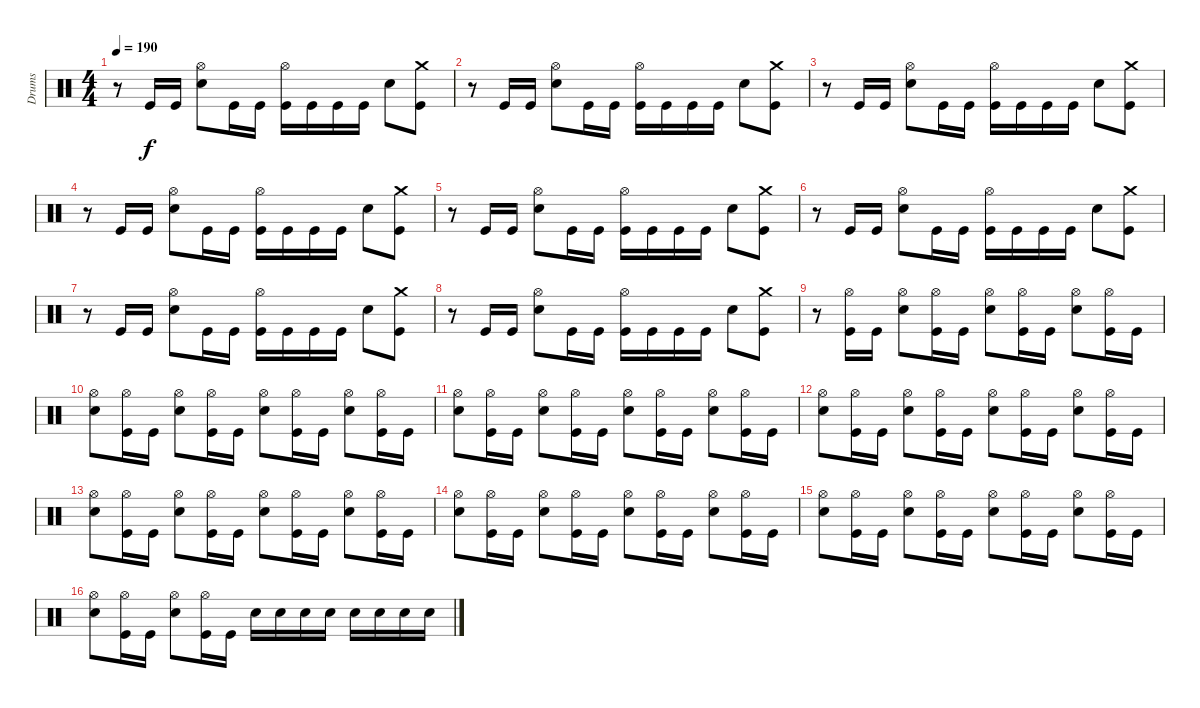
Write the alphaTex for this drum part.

\track ("Drums" "Drums") {instrument percussion}
\staff {score}
\articulation defaults
\ts (4 4)
\tempo 190
\clef neutral
\ks c
r.8{dy f} "Kick (hit)".16 "Kick (hit)".16 ("Hi-Hat (open)" "Snare (hit) 2").8 "Kick (hit)".16 "Kick (hit)".16 ("Hi-Hat (open)" "Kick (hit)").16 "Kick (hit)".16 "Kick (hit)".16 "Kick (hit)".16 "Snare (hit) 2".8 ("Crash medium (hit)" "Kick (hit)").8 |
r.8 "Kick (hit)".16 "Kick (hit)".16 ("Hi-Hat (open)" "Snare (hit) 2").8 "Kick (hit)".16 "Kick (hit)".16 ("Hi-Hat (open)" "Kick (hit)").16 "Kick (hit)".16 "Kick (hit)".16 "Kick (hit)".16 "Snare (hit) 2".8 ("Crash medium (hit)" "Kick (hit)").8 |
r.8 "Kick (hit)".16 "Kick (hit)".16 ("Hi-Hat (open)" "Snare (hit) 2").8 "Kick (hit)".16 "Kick (hit)".16 ("Hi-Hat (open)" "Kick (hit)").16 "Kick (hit)".16 "Kick (hit)".16 "Kick (hit)".16 "Snare (hit) 2".8 ("Crash medium (hit)" "Kick (hit)").8 |
r.8 "Kick (hit)".16 "Kick (hit)".16 ("Hi-Hat (open)" "Snare (hit) 2").8 "Kick (hit)".16 "Kick (hit)".16 ("Hi-Hat (open)" "Kick (hit)").16 "Kick (hit)".16 "Kick (hit)".16 "Kick (hit)".16 "Snare (hit) 2".8 ("Crash medium (hit)" "Kick (hit)").8 |
r.8 "Kick (hit)".16 "Kick (hit)".16 ("Hi-Hat (open)" "Snare (hit) 2").8 "Kick (hit)".16 "Kick (hit)".16 ("Hi-Hat (open)" "Kick (hit)").16 "Kick (hit)".16 "Kick (hit)".16 "Kick (hit)".16 "Snare (hit) 2".8 ("Crash medium (hit)" "Kick (hit)").8 |
r.8 "Kick (hit)".16 "Kick (hit)".16 ("Hi-Hat (open)" "Snare (hit) 2").8 "Kick (hit)".16 "Kick (hit)".16 ("Hi-Hat (open)" "Kick (hit)").16 "Kick (hit)".16 "Kick (hit)".16 "Kick (hit)".16 "Snare (hit) 2".8 ("Crash medium (hit)" "Kick (hit)").8 |
r.8 "Kick (hit)".16 "Kick (hit)".16 ("Hi-Hat (open)" "Snare (hit) 2").8 "Kick (hit)".16 "Kick (hit)".16 ("Hi-Hat (open)" "Kick (hit)").16 "Kick (hit)".16 "Kick (hit)".16 "Kick (hit)".16 "Snare (hit) 2".8 ("Crash medium (hit)" "Kick (hit)").8 |
r.8 "Kick (hit)".16 "Kick (hit)".16 ("Hi-Hat (open)" "Snare (hit) 2").8 "Kick (hit)".16 "Kick (hit)".16 ("Hi-Hat (open)" "Kick (hit)").16 "Kick (hit)".16 "Kick (hit)".16 "Kick (hit)".16 "Snare (hit) 2".8 ("Crash medium (hit)" "Kick (hit)").8 |
r.8 ("Hi-Hat (open)" "Kick (hit)").16 "Kick (hit)".16 ("Hi-Hat (open)" "Snare (hit) 2").8 ("Hi-Hat (open)" "Kick (hit)").16 "Kick (hit)".16 ("Hi-Hat (open)" "Snare (hit) 2").8 ("Hi-Hat (open)" "Kick (hit)").16 "Kick (hit)".16 ("Hi-Hat (open)" "Snare (hit) 2").8 ("Hi-Hat (open)" "Kick (hit)").16 "Kick (hit)".16 |
("Hi-Hat (open)" "Snare (hit) 2").8 ("Hi-Hat (open)" "Kick (hit)").16 "Kick (hit)".16 ("Hi-Hat (open)" "Snare (hit) 2").8 ("Hi-Hat (open)" "Kick (hit)").16 "Kick (hit)".16 ("Hi-Hat (open)" "Snare (hit) 2").8 ("Hi-Hat (open)" "Kick (hit)").16 "Kick (hit)".16 ("Hi-Hat (open)" "Snare (hit) 2").8 ("Hi-Hat (open)" "Kick (hit)").16 "Kick (hit)".16 |
("Hi-Hat (open)" "Snare (hit) 2").8 ("Hi-Hat (open)" "Kick (hit)").16 "Kick (hit)".16 ("Hi-Hat (open)" "Snare (hit) 2").8 ("Hi-Hat (open)" "Kick (hit)").16 "Kick (hit)".16 ("Hi-Hat (open)" "Snare (hit) 2").8 ("Hi-Hat (open)" "Kick (hit)").16 "Kick (hit)".16 ("Hi-Hat (open)" "Snare (hit) 2").8 ("Hi-Hat (open)" "Kick (hit)").16 "Kick (hit)".16 |
("Hi-Hat (open)" "Snare (hit) 2").8 ("Hi-Hat (open)" "Kick (hit)").16 "Kick (hit)".16 ("Hi-Hat (open)" "Snare (hit) 2").8 ("Hi-Hat (open)" "Kick (hit)").16 "Kick (hit)".16 ("Hi-Hat (open)" "Snare (hit) 2").8 ("Hi-Hat (open)" "Kick (hit)").16 "Kick (hit)".16 ("Hi-Hat (open)" "Snare (hit) 2").8 ("Hi-Hat (open)" "Kick (hit)").16 "Kick (hit)".16 |
("Hi-Hat (open)" "Snare (hit) 2").8 ("Hi-Hat (open)" "Kick (hit)").16 "Kick (hit)".16 ("Hi-Hat (open)" "Snare (hit) 2").8 ("Hi-Hat (open)" "Kick (hit)").16 "Kick (hit)".16 ("Hi-Hat (open)" "Snare (hit) 2").8 ("Hi-Hat (open)" "Kick (hit)").16 "Kick (hit)".16 ("Hi-Hat (open)" "Snare (hit) 2").8 ("Hi-Hat (open)" "Kick (hit)").16 "Kick (hit)".16 |
("Hi-Hat (open)" "Snare (hit) 2").8 ("Hi-Hat (open)" "Kick (hit)").16 "Kick (hit)".16 ("Hi-Hat (open)" "Snare (hit) 2").8 ("Hi-Hat (open)" "Kick (hit)").16 "Kick (hit)".16 ("Hi-Hat (open)" "Snare (hit) 2").8 ("Hi-Hat (open)" "Kick (hit)").16 "Kick (hit)".16 ("Hi-Hat (open)" "Snare (hit) 2").8 ("Hi-Hat (open)" "Kick (hit)").16 "Kick (hit)".16 |
("Hi-Hat (open)" "Snare (hit) 2").8 ("Hi-Hat (open)" "Kick (hit)").16 "Kick (hit)".16 ("Hi-Hat (open)" "Snare (hit) 2").8 ("Hi-Hat (open)" "Kick (hit)").16 "Kick (hit)".16 ("Hi-Hat (open)" "Snare (hit) 2").8 ("Hi-Hat (open)" "Kick (hit)").16 "Kick (hit)".16 ("Hi-Hat (open)" "Snare (hit) 2").8 ("Hi-Hat (open)" "Kick (hit)").16 "Kick (hit)".16 |
("Hi-Hat (open)" "Snare (hit) 2").8 ("Hi-Hat (open)" "Kick (hit)").16 "Kick (hit)".16 ("Hi-Hat (open)" "Snare (hit) 2").8 ("Hi-Hat (open)" "Kick (hit)").16 "Kick (hit)".16 "Snare (hit) 2".16 "Snare (hit) 2".16 "Snare (hit) 2".16 "Snare (hit) 2".16 "Snare (hit) 2".16 "Snare (hit) 2".16 "Snare (hit) 2".16 "Snare (hit) 2".16
